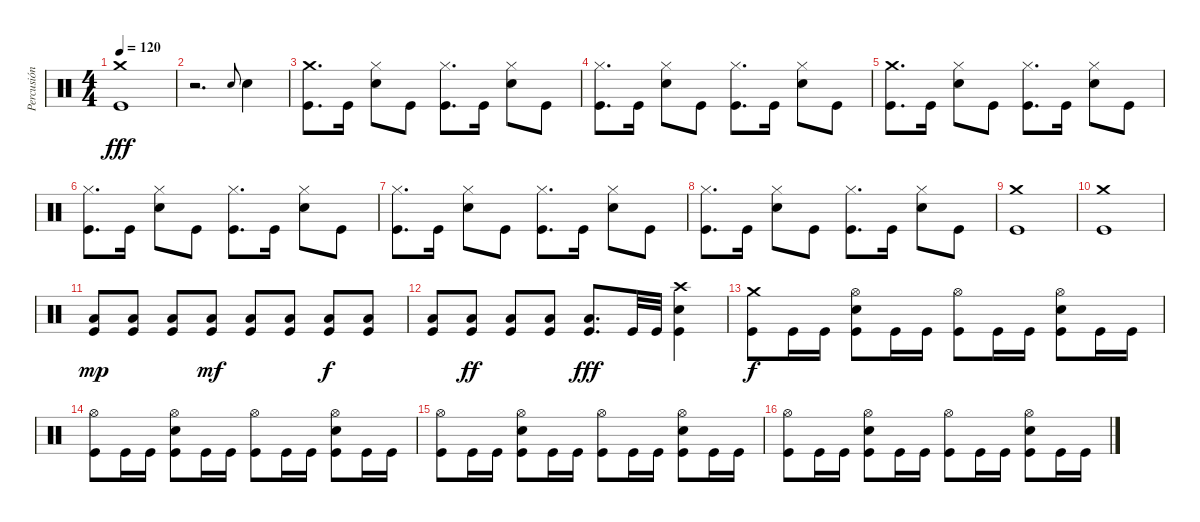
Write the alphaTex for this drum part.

\track ("Percusión" "Percusión") {instrument percussion}
\staff {score}
\articulation defaults
\ts (4 4)
\tempo 120
\clef neutral
\ks c
("Crash medium (hit)" "Kick (hit)").1{dy fff} |
r.2{d} "Snare (hit) 2".8{gr onbeat} "Snare (hit) 2".4 |
("Crash medium (hit)" "Kick (hit)").8{d} "Kick (hit)".16 ("Hi-Hat (closed)" "Snare (hit) 2").8 "Kick (hit)".8 ("Hi-Hat (closed)" "Kick (hit)").8{d} "Kick (hit)".16 ("Hi-Hat (closed)" "Snare (hit) 2").8 "Kick (hit)".8 |
("Hi-Hat (closed)" "Kick (hit)").8{d} "Kick (hit)".16 ("Hi-Hat (closed)" "Snare (hit) 2").8 "Kick (hit)".8 ("Hi-Hat (closed)" "Kick (hit)").8{d} "Kick (hit)".16 ("Hi-Hat (closed)" "Snare (hit) 2").8 "Kick (hit)".8 |
("Crash medium (hit)" "Kick (hit)").8{d} "Kick (hit)".16 ("Hi-Hat (closed)" "Snare (hit) 2").8 "Kick (hit)".8 ("Hi-Hat (closed)" "Kick (hit)").8{d} "Kick (hit)".16 ("Hi-Hat (closed)" "Snare (hit) 2").8 "Kick (hit)".8 |
("Hi-Hat (closed)" "Kick (hit)").8{d} "Kick (hit)".16 ("Hi-Hat (closed)" "Snare (hit) 2").8 "Kick (hit)".8 ("Hi-Hat (closed)" "Kick (hit)").8{d} "Kick (hit)".16 ("Hi-Hat (closed)" "Snare (hit) 2").8 "Kick (hit)".8 |
("Hi-Hat (closed)" "Kick (hit)").8{d} "Kick (hit)".16 ("Hi-Hat (closed)" "Snare (hit) 2").8 "Kick (hit)".8 ("Hi-Hat (closed)" "Kick (hit)").8{d} "Kick (hit)".16 ("Hi-Hat (closed)" "Snare (hit) 2").8 "Kick (hit)".8 |
("Hi-Hat (closed)" "Kick (hit)").8{d} "Kick (hit)".16 ("Hi-Hat (closed)" "Snare (hit) 2").8 "Kick (hit)".8 ("Hi-Hat (closed)" "Kick (hit)").8{d} "Kick (hit)".16 ("Hi-Hat (closed)" "Snare (hit) 2").8 "Kick (hit)".8 |
("Crash medium (hit)" "Kick (hit)").1 |
("Crash medium (hit)" "Kick (hit)").1 |
("Low Tom (hit)" "Kick (hit)").8{dy mp} ("Low Tom (hit)" "Kick (hit)").8 ("Low Tom (hit)" "Kick (hit)").8 ("Low Tom (hit)" "Kick (hit)").8{dy mf} ("Low Tom (hit)" "Kick (hit)").8 ("Low Tom (hit)" "Kick (hit)").8 ("Low Tom (hit)" "Kick (hit)").8{dy f} ("Low Tom (hit)" "Kick (hit)").8 |
("Low Tom (hit)" "Kick (hit)").8 ("Low Tom (hit)" "Kick (hit)").8{dy ff} ("Low Tom (hit)" "Kick (hit)").8 ("Low Tom (hit)" "Kick (hit)").8 ("Low Tom (hit)" "Kick (hit)").8{d dy fff} "Kick (hit)".32 "Kick (hit)".32 ("Crash high (hit)" "Snare (hit) 2" "Kick (hit)").4 |
("Crash medium (hit)" "Kick (hit)").8{dy f} "Kick (hit)".16 "Kick (hit)".16 ("Hi-Hat (open)" "Snare (hit) 2" "Kick (hit)").8 "Kick (hit)".16 "Kick (hit)".16 ("Hi-Hat (open)" "Kick (hit)").8 "Kick (hit)".16 "Kick (hit)".16 ("Hi-Hat (open)" "Snare (hit) 2" "Kick (hit)").8 "Kick (hit)".16 "Kick (hit)".16 |
("Hi-Hat (open)" "Kick (hit)").8 "Kick (hit)".16 "Kick (hit)".16 ("Hi-Hat (open)" "Snare (hit) 2" "Kick (hit)").8 "Kick (hit)".16 "Kick (hit)".16 ("Hi-Hat (open)" "Kick (hit)").8 "Kick (hit)".16 "Kick (hit)".16 ("Hi-Hat (open)" "Snare (hit) 2" "Kick (hit)").8 "Kick (hit)".16 "Kick (hit)".16 |
("Hi-Hat (open)" "Kick (hit)").8 "Kick (hit)".16 "Kick (hit)".16 ("Hi-Hat (open)" "Snare (hit) 2" "Kick (hit)").8 "Kick (hit)".16 "Kick (hit)".16 ("Hi-Hat (open)" "Kick (hit)").8 "Kick (hit)".16 "Kick (hit)".16 ("Hi-Hat (open)" "Snare (hit) 2" "Kick (hit)").8 "Kick (hit)".16 "Kick (hit)".16 |
("Hi-Hat (open)" "Kick (hit)").8 "Kick (hit)".16 "Kick (hit)".16 ("Hi-Hat (open)" "Snare (hit) 2" "Kick (hit)").8 "Kick (hit)".16 "Kick (hit)".16 ("Hi-Hat (open)" "Kick (hit)").8 "Kick (hit)".16 "Kick (hit)".16 ("Hi-Hat (open)" "Snare (hit) 2" "Kick (hit)").8 "Kick (hit)".16 "Kick (hit)".16
